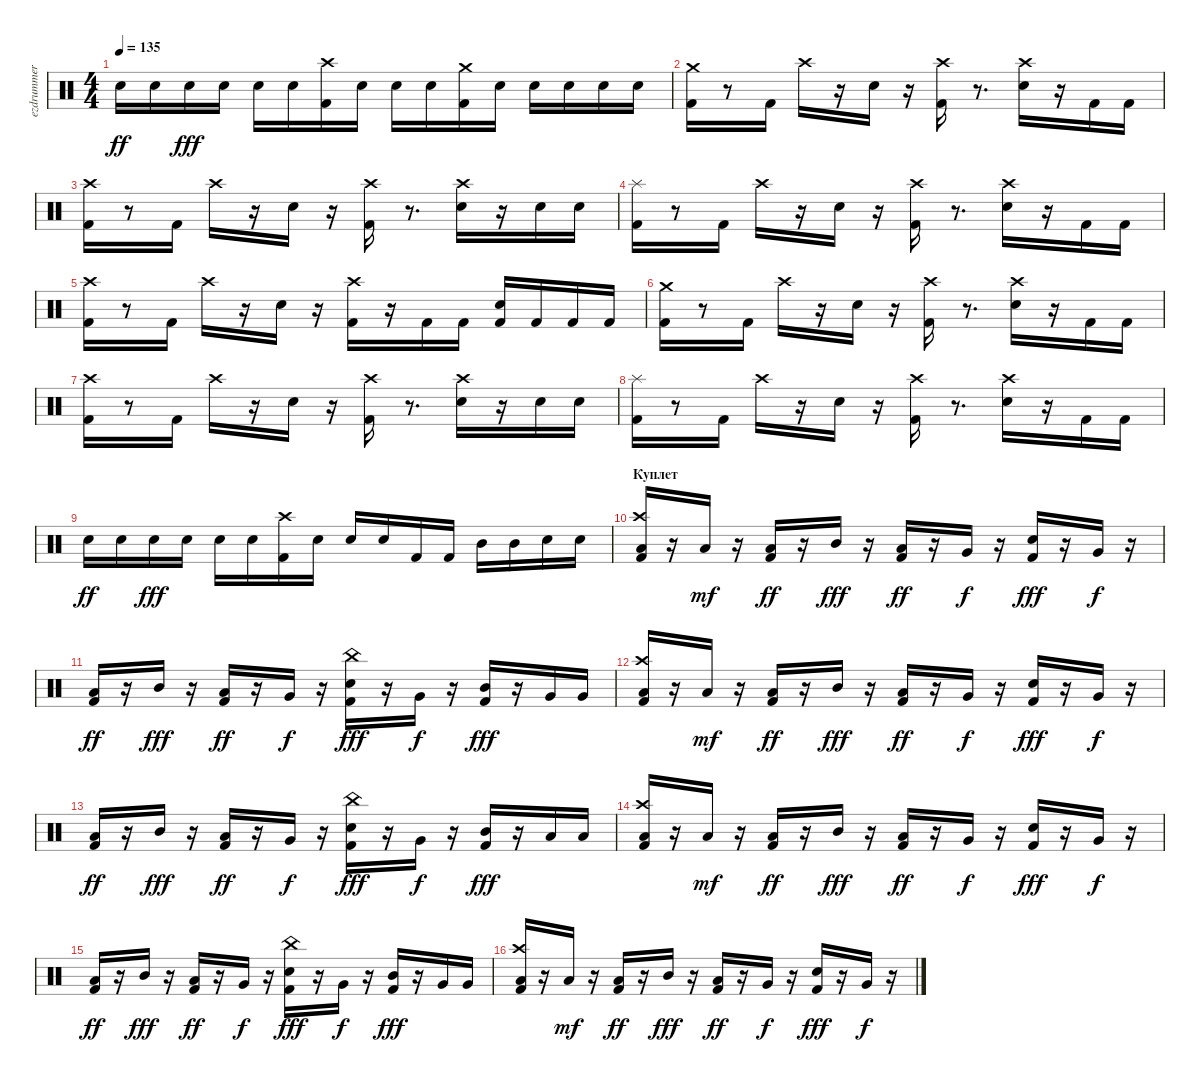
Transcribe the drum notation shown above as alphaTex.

\track ("ezdrummer" "ezdrummer") {instrument percussion}
\staff {score}
\articulation defaults
\ts (4 4)
\tempo 135
\clef neutral
\ks c "Snare (hit) 2".16{dy ff} "Snare (hit) 2".16 "Snare (hit) 2".16{dy fff} "Snare (hit) 2".16 "Snare (hit) 2".16 "Snare (hit) 2".16
("Kick (hit) 2" "Crash high (hit)").16 "Snare (hit) 2".16 "Snare (hit) 2".16 "Snare (hit) 2".16 ("Kick (hit) 2" "Crash medium (hit)").16 "Snare (hit) 2".16 "Snare (hit) 2".16 "Snare (hit) 2".16 "Snare (hit) 2".16 "Snare (hit) 2".16 |
("Kick (hit) 2" "Crash medium (hit)").16 r.8 "Kick (hit) 2".16 "Crash high (hit)".16 r.16 "Snare (hit) 2".16 r.16 ("Kick (hit) 2" "Crash high (hit)").16 r.8{d} ("Snare (hit) 2" "Crash high (hit)").16 r.16 "Kick (hit) 2".16 "Kick (hit) 2".16 |
("Kick (hit) 2" "Crash high (hit)").16 r.8 "Kick (hit) 2".16 "Crash high (hit)".16 r.16 "Snare (hit) 2".16 r.16 ("Kick (hit) 2" "Crash high (hit)").16 r.8{d} ("Snare (hit) 2" "Crash high (hit)").16 r.16 "Snare (hit) 2".16 "Snare (hit) 2".16 |
("Kick (hit) 2" "Splash (hit)").16 r.8 "Kick (hit) 2".16 "Crash high (hit)".16 r.16 "Snare (hit) 2".16 r.16 ("Kick (hit) 2" "Crash high (hit)").16 r.8{d} ("Snare (hit) 2" "Crash high (hit)").16 r.16 "Kick (hit) 2".16 "Kick (hit) 2".16 |
("Kick (hit) 2" "Crash high (hit)").16 r.8 "Kick (hit) 2".16 "Crash high (hit)".16 r.16 "Snare (hit) 2".16 r.16 ("Kick (hit) 2" "Crash high (hit)").16 r.16 "Kick (hit) 2".16 "Kick (hit) 2".16 ("Kick (hit) 2" "Snare (hit) 2").16 "Kick (hit) 2".16 "Kick (hit) 2".16 "Kick (hit) 2".16 |
("Kick (hit) 2" "Crash medium (hit)").16 r.8 "Kick (hit) 2".16 "Crash high (hit)".16 r.16 "Snare (hit) 2".16 r.16 ("Kick (hit) 2" "Crash high (hit)").16 r.8{d} ("Snare (hit) 2" "Crash high (hit)").16 r.16 "Kick (hit) 2".16 "Kick (hit) 2".16 |
("Kick (hit) 2" "Crash high (hit)").16 r.8 "Kick (hit) 2".16 "Crash high (hit)".16 r.16 "Snare (hit) 2".16 r.16 ("Kick (hit) 2" "Crash high (hit)").16 r.8{d} ("Snare (hit) 2" "Crash high (hit)").16 r.16 "Snare (hit) 2".16 "Snare (hit) 2".16 |
("Kick (hit) 2" "Splash (hit)").16 r.8 "Kick (hit) 2".16 "Crash high (hit)".16 r.16 "Snare (hit) 2".16 r.16 ("Kick (hit) 2" "Crash high (hit)").16 r.8{d} ("Snare (hit) 2" "Crash high (hit)").16 r.16 "Kick (hit) 2".16 "Kick (hit) 2".16 |
"Snare (hit) 2".16{dy ff} "Snare (hit) 2".16 "Snare (hit) 2".16{dy fff} "Snare (hit) 2".16 "Snare (hit) 2".16 "Snare (hit) 2".16 ("Kick (hit) 2" "Crash high (hit)").16 "Snare (hit) 2".16 "Snare (hit) 2".16 "Snare (hit) 2".16 "Kick (hit) 2".16 "Kick (hit) 2".16 "Mid Tom (hit)".16 "Mid Tom (hit)".16 "Snare (hit) 2".16 "Snare (hit) 2".16 |
\section ("" "Куплет")
("Kick (hit) 2" "Low Tom (hit)" "Crash high (hit)").16 r.16 "Low Tom (hit)".16{dy mf} r.16 ("Kick (hit) 2" "Low Tom (hit)").16{dy ff} r.16 "Mid Tom (hit)".16{dy fff} r.16 ("Kick (hit) 2" "Low Tom (hit)").16{dy ff} r.16 "Very Low Tom (hit)".16{dy f} r.16 ("Kick (hit) 2" "Snare (hit) 2").16{dy fff} r.16 "Very Low Tom (hit)".16{dy f} r.16 |
("Kick (hit) 2" "Low Tom (hit)").16{dy ff} r.16 "Mid Tom (hit)".16{dy fff} r.16 ("Kick (hit) 2" "Low Tom (hit)").16{dy ff} r.16 "Very Low Tom (hit)".16{dy f} r.16 ("Kick (hit) 2" "Snare (hit) 2" "China (hit)").16{dy fff} r.16 "Very Low Tom (hit)".16{dy f} r.16 ("Kick (hit) 2" "Mid Tom (hit)").16{dy fff} r.16 "Very Low Tom (hit)".16 "Very Low Tom (hit)".16 |
("Kick (hit) 2" "Low Tom (hit)" "Crash high (hit)").16 r.16 "Low Tom (hit)".16{dy mf} r.16 ("Kick (hit) 2" "Low Tom (hit)").16{dy ff} r.16 "Mid Tom (hit)".16{dy fff} r.16 ("Kick (hit) 2" "Low Tom (hit)").16{dy ff} r.16 "Very Low Tom (hit)".16{dy f} r.16 ("Kick (hit) 2" "Snare (hit) 2").16{dy fff} r.16 "Very Low Tom (hit)".16{dy f} r.16 |
("Kick (hit) 2" "Low Tom (hit)").16{dy ff} r.16 "Mid Tom (hit)".16{dy fff} r.16 ("Kick (hit) 2" "Low Tom (hit)").16{dy ff} r.16 "Very Low Tom (hit)".16{dy f} r.16 ("Kick (hit) 2" "Snare (hit) 2" "China (hit)").16{dy fff} r.16 "Very Low Tom (hit)".16{dy f} r.16 ("Kick (hit) 2" "Mid Tom (hit)").16{dy fff} r.16 "Low Floor Tom (hit)".16 "Low Floor Tom (hit)".16 |
("Kick (hit) 2" "Low Tom (hit)" "Crash high (hit)").16 r.16 "Low Tom (hit)".16{dy mf} r.16 ("Kick (hit) 2" "Low Tom (hit)").16{dy ff} r.16 "Mid Tom (hit)".16{dy fff} r.16 ("Kick (hit) 2" "Low Tom (hit)").16{dy ff} r.16 "Very Low Tom (hit)".16{dy f} r.16 ("Kick (hit) 2" "Snare (hit) 2").16{dy fff} r.16 "Very Low Tom (hit)".16{dy f} r.16 |
("Kick (hit) 2" "Low Tom (hit)").16{dy ff} r.16 "Mid Tom (hit)".16{dy fff} r.16 ("Kick (hit) 2" "Low Tom (hit)").16{dy ff} r.16 "Very Low Tom (hit)".16{dy f} r.16 ("Kick (hit) 2" "Snare (hit) 2" "China (hit)").16{dy fff} r.16 "Very Low Tom (hit)".16{dy f} r.16 ("Kick (hit) 2" "Mid Tom (hit)").16{dy fff} r.16 "Very Low Tom (hit)".16 "Very Low Tom (hit)".16 |
("Kick (hit) 2" "Low Tom (hit)" "Crash high (hit)").16 r.16 "Low Tom (hit)".16{dy mf} r.16 ("Kick (hit) 2" "Low Tom (hit)").16{dy ff} r.16 "Mid Tom (hit)".16{dy fff} r.16 ("Kick (hit) 2" "Low Tom (hit)").16{dy ff} r.16 "Very Low Tom (hit)".16{dy f} r.16 ("Kick (hit) 2" "Snare (hit) 2").16{dy fff} r.16 "Very Low Tom (hit)".16{dy f} r.16
